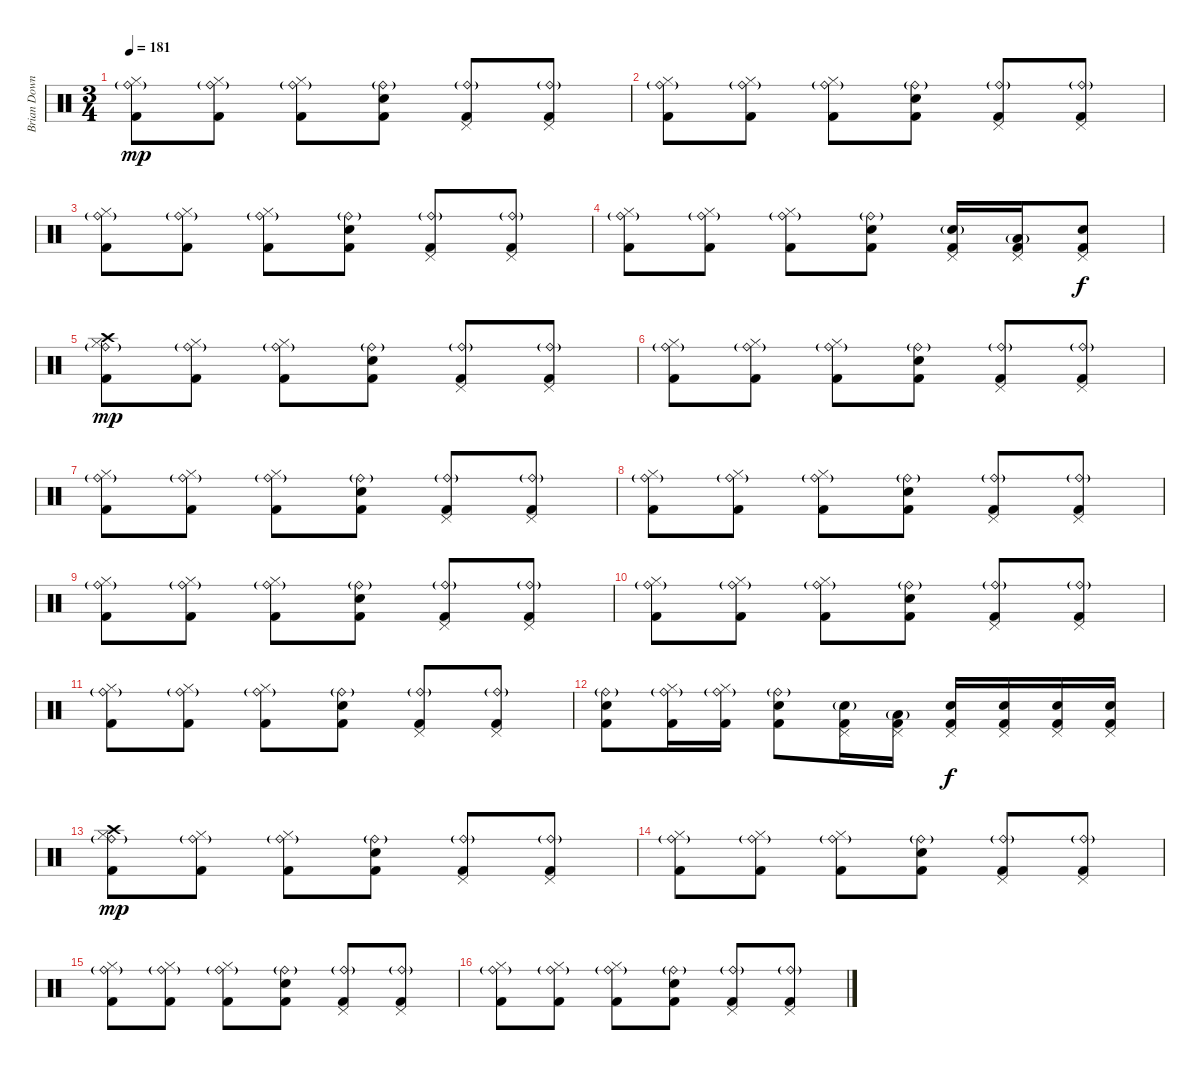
\track ("Brian Downey" "Brian Down") {instrument percussion}
\staff {score}
\articulation defaults
\ts (3 4)
\tempo 181
\clef neutral
\ks c
("Ride (bell)"{g} "Hi-Hat (closed)" "Kick (hit) 2").8{dy mp} ("Ride (bell)"{g} "Hi-Hat (closed)" "Kick (hit) 2").8 ("Ride (bell)"{g} "Hi-Hat (closed)" "Kick (hit) 2").8 ("Ride (bell)"{g} "Snare (hit) 2" "Kick (hit) 2").8 ("Ride (bell)"{g} "Pedal Hi-Hat (hit)" "Kick (hit) 2").8 ("Ride (bell)"{g} "Pedal Hi-Hat (hit)" "Kick (hit) 2").8 |
("Ride (bell)"{g} "Hi-Hat (closed)" "Kick (hit) 2").8 ("Ride (bell)"{g} "Hi-Hat (closed)" "Kick (hit) 2").8 ("Ride (bell)"{g} "Hi-Hat (closed)" "Kick (hit) 2").8 ("Ride (bell)"{g} "Snare (hit) 2" "Kick (hit) 2").8 ("Ride (bell)"{g} "Pedal Hi-Hat (hit)" "Kick (hit) 2").8 ("Ride (bell)"{g} "Pedal Hi-Hat (hit)" "Kick (hit) 2").8 |
("Ride (bell)"{g} "Hi-Hat (closed)" "Kick (hit) 2").8 ("Ride (bell)"{g} "Hi-Hat (closed)" "Kick (hit) 2").8 ("Ride (bell)"{g} "Hi-Hat (closed)" "Kick (hit) 2").8 ("Ride (bell)"{g} "Snare (hit) 2" "Kick (hit) 2").8 ("Ride (bell)"{g} "Pedal Hi-Hat (hit)" "Kick (hit) 2").8 ("Ride (bell)"{g} "Pedal Hi-Hat (hit)" "Kick (hit) 2").8 |
("Ride (bell)"{g} "Hi-Hat (closed)" "Kick (hit) 2").8 ("Ride (bell)"{g} "Hi-Hat (closed)" "Kick (hit) 2").8 ("Ride (bell)"{g} "Hi-Hat (closed)" "Kick (hit) 2").8 ("Ride (bell)"{g} "Snare (hit) 2" "Kick (hit) 2").8 ("Electric Snare (hit)"{g} "Pedal Hi-Hat (hit)" "Kick (hit) 2").16 ("Low Tom (hit)"{g} "Pedal Hi-Hat (hit)" "Kick (hit) 2").16 ("Snare (hit) 2" "Pedal Hi-Hat (hit)" "Kick (hit) 2").8{dy f} |
("Crash high (hit)" "Ride (bell)"{g} "Hi-Hat (closed)" "Kick (hit) 2").8{dy mp} ("Ride (bell)"{g} "Hi-Hat (closed)" "Kick (hit) 2").8 ("Ride (bell)"{g} "Hi-Hat (closed)" "Kick (hit) 2").8 ("Ride (bell)"{g} "Snare (hit) 2" "Kick (hit) 2").8 ("Ride (bell)"{g} "Pedal Hi-Hat (hit)" "Kick (hit) 2").8 ("Ride (bell)"{g} "Pedal Hi-Hat (hit)" "Kick (hit) 2").8 |
("Ride (bell)"{g} "Hi-Hat (closed)" "Kick (hit) 2").8 ("Ride (bell)"{g} "Hi-Hat (closed)" "Kick (hit) 2").8 ("Ride (bell)"{g} "Hi-Hat (closed)" "Kick (hit) 2").8 ("Ride (bell)"{g} "Snare (hit) 2" "Kick (hit) 2").8 ("Ride (bell)"{g} "Pedal Hi-Hat (hit)" "Kick (hit) 2").8 ("Ride (bell)"{g} "Pedal Hi-Hat (hit)" "Kick (hit) 2").8 |
("Ride (bell)"{g} "Hi-Hat (closed)" "Kick (hit) 2").8 ("Ride (bell)"{g} "Hi-Hat (closed)" "Kick (hit) 2").8 ("Ride (bell)"{g} "Hi-Hat (closed)" "Kick (hit) 2").8 ("Ride (bell)"{g} "Snare (hit) 2" "Kick (hit) 2").8 ("Ride (bell)"{g} "Pedal Hi-Hat (hit)" "Kick (hit) 2").8 ("Ride (bell)"{g} "Pedal Hi-Hat (hit)" "Kick (hit) 2").8 |
("Ride (bell)"{g} "Hi-Hat (closed)" "Kick (hit) 2").8 ("Ride (bell)"{g} "Hi-Hat (closed)" "Kick (hit) 2").8 ("Ride (bell)"{g} "Hi-Hat (closed)" "Kick (hit) 2").8 ("Ride (bell)"{g} "Snare (hit) 2" "Kick (hit) 2").8 ("Ride (bell)"{g} "Pedal Hi-Hat (hit)" "Kick (hit) 2").8 ("Ride (bell)"{g} "Pedal Hi-Hat (hit)" "Kick (hit) 2").8 |
("Ride (bell)"{g} "Hi-Hat (closed)" "Kick (hit) 2").8 ("Ride (bell)"{g} "Hi-Hat (closed)" "Kick (hit) 2").8 ("Ride (bell)"{g} "Hi-Hat (closed)" "Kick (hit) 2").8 ("Ride (bell)"{g} "Snare (hit) 2" "Kick (hit) 2").8 ("Ride (bell)"{g} "Pedal Hi-Hat (hit)" "Kick (hit) 2").8 ("Ride (bell)"{g} "Pedal Hi-Hat (hit)" "Kick (hit) 2").8 |
("Ride (bell)"{g} "Hi-Hat (closed)" "Kick (hit) 2").8 ("Ride (bell)"{g} "Hi-Hat (closed)" "Kick (hit) 2").8 ("Ride (bell)"{g} "Hi-Hat (closed)" "Kick (hit) 2").8 ("Ride (bell)"{g} "Snare (hit) 2" "Kick (hit) 2").8 ("Ride (bell)"{g} "Pedal Hi-Hat (hit)" "Kick (hit) 2").8 ("Ride (bell)"{g} "Pedal Hi-Hat (hit)" "Kick (hit) 2").8 |
("Ride (bell)"{g} "Hi-Hat (closed)" "Kick (hit) 2").8 ("Ride (bell)"{g} "Hi-Hat (closed)" "Kick (hit) 2").8 ("Ride (bell)"{g} "Hi-Hat (closed)" "Kick (hit) 2").8 ("Ride (bell)"{g} "Snare (hit) 2" "Kick (hit) 2").8 ("Ride (bell)"{g} "Pedal Hi-Hat (hit)" "Kick (hit) 2").8 ("Ride (bell)"{g} "Pedal Hi-Hat (hit)" "Kick (hit) 2").8 |
("Ride (bell)"{g} "Electric Snare (hit)" "Kick (hit) 2").8 ("Ride (bell)"{g} "Hi-Hat (closed)" "Kick (hit) 2").16 ("Ride (bell)"{g} "Hi-Hat (closed)" "Kick (hit) 2").16 ("Ride (bell)"{g} "Snare (hit) 2" "Kick (hit) 2").8 ("Electric Snare (hit)"{g} "Pedal Hi-Hat (hit)" "Kick (hit) 2").16 ("Low Tom (hit)"{g} "Pedal Hi-Hat (hit)" "Kick (hit) 2").16 ("Snare (hit) 2" "Pedal Hi-Hat (hit)" "Kick (hit) 2").16{dy f} ("Snare (hit) 2" "Pedal Hi-Hat (hit)" "Kick (hit) 2").16 ("Snare (hit) 2" "Pedal Hi-Hat (hit)" "Kick (hit) 2").16 ("Snare (hit) 2" "Pedal Hi-Hat (hit)" "Kick (hit) 2").16 |
("Crash high (hit)" "Ride (bell)"{g} "Hi-Hat (closed)" "Kick (hit) 2").8{dy mp} ("Ride (bell)"{g} "Hi-Hat (closed)" "Kick (hit) 2").8 ("Ride (bell)"{g} "Hi-Hat (closed)" "Kick (hit) 2").8 ("Ride (bell)"{g} "Snare (hit) 2" "Kick (hit) 2").8 ("Ride (bell)"{g} "Pedal Hi-Hat (hit)" "Kick (hit) 2").8 ("Ride (bell)"{g} "Pedal Hi-Hat (hit)" "Kick (hit) 2").8 |
("Ride (bell)"{g} "Hi-Hat (closed)" "Kick (hit) 2").8 ("Ride (bell)"{g} "Hi-Hat (closed)" "Kick (hit) 2").8 ("Ride (bell)"{g} "Hi-Hat (closed)" "Kick (hit) 2").8 ("Ride (bell)"{g} "Snare (hit) 2" "Kick (hit) 2").8 ("Ride (bell)"{g} "Pedal Hi-Hat (hit)" "Kick (hit) 2").8 ("Ride (bell)"{g} "Pedal Hi-Hat (hit)" "Kick (hit) 2").8 |
("Ride (bell)"{g} "Hi-Hat (closed)" "Kick (hit) 2").8 ("Ride (bell)"{g} "Hi-Hat (closed)" "Kick (hit) 2").8 ("Ride (bell)"{g} "Hi-Hat (closed)" "Kick (hit) 2").8 ("Ride (bell)"{g} "Snare (hit) 2" "Kick (hit) 2").8 ("Ride (bell)"{g} "Pedal Hi-Hat (hit)" "Kick (hit) 2").8 ("Ride (bell)"{g} "Pedal Hi-Hat (hit)" "Kick (hit) 2").8 |
("Ride (bell)"{g} "Hi-Hat (closed)" "Kick (hit) 2").8 ("Ride (bell)"{g} "Hi-Hat (closed)" "Kick (hit) 2").8 ("Ride (bell)"{g} "Hi-Hat (closed)" "Kick (hit) 2").8 ("Ride (bell)"{g} "Snare (hit) 2" "Kick (hit) 2").8 ("Ride (bell)"{g} "Pedal Hi-Hat (hit)" "Kick (hit) 2").8 ("Ride (bell)"{g} "Pedal Hi-Hat (hit)" "Kick (hit) 2").8
